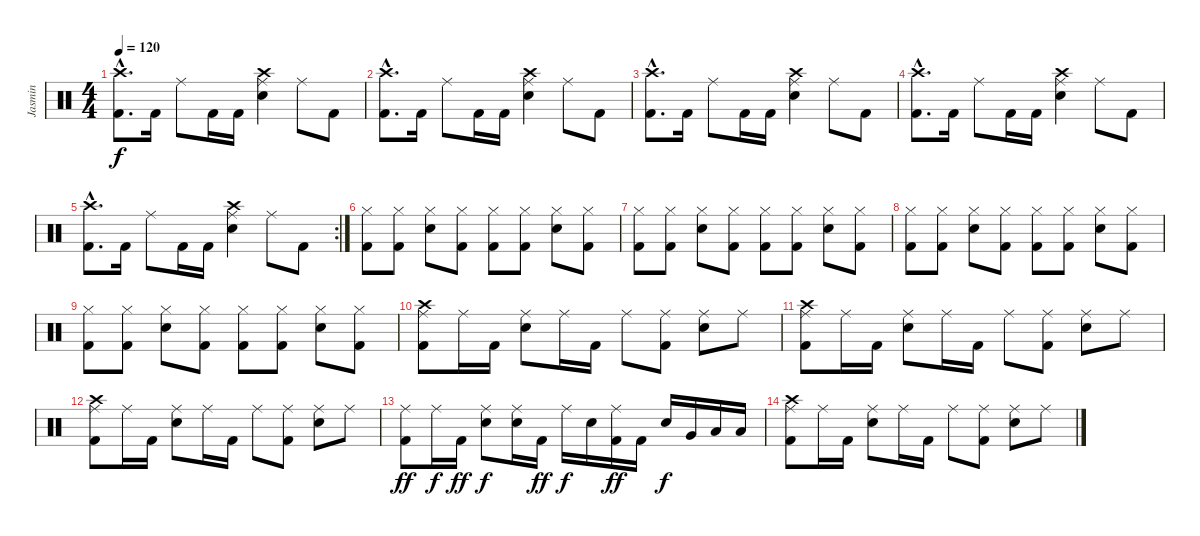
\track ("Jasmin" "Jasmin") {instrument percussion}
\staff {score}
\articulation defaults
\ts (4 4)
\tempo 120
\clef neutral
\ks c
("Crash high (hit)"{hac} "Kick (hit) 2"{hac}).8{d dy f} "Kick (hit) 2".16 "Ride (middle)".8 "Kick (hit) 2".16 "Kick (hit) 2".16 ("Crash high (hit)" "Ride (middle)" "Electric Snare (hit)").4 "Ride (middle)".8 "Kick (hit) 2".8 |
("Crash high (hit)"{hac} "Kick (hit) 2"{hac}).8{d} "Kick (hit) 2".16 "Ride (middle)".8 "Kick (hit) 2".16 "Kick (hit) 2".16 ("Crash high (hit)" "Ride (middle)" "Electric Snare (hit)").4 "Ride (middle)".8 "Kick (hit) 2".8 |
("Crash high (hit)"{hac} "Kick (hit) 2"{hac}).8{d} "Kick (hit) 2".16 "Ride (middle)".8 "Kick (hit) 2".16 "Kick (hit) 2".16 ("Crash high (hit)" "Ride (middle)" "Electric Snare (hit)").4 "Ride (middle)".8 "Kick (hit) 2".8 |
("Crash high (hit)"{hac} "Kick (hit) 2"{hac}).8{d} "Kick (hit) 2".16 "Ride (middle)".8 "Kick (hit) 2".16 "Kick (hit) 2".16 ("Crash high (hit)" "Ride (middle)" "Electric Snare (hit)").4 "Ride (middle)".8 "Kick (hit) 2".8 |
\rc 2
("Crash high (hit)"{hac} "Kick (hit) 2"{hac}).8{d} "Kick (hit) 2".16 "Ride (middle)".8 "Kick (hit) 2".16 "Kick (hit) 2".16 ("Crash high (hit)" "Ride (middle)" "Electric Snare (hit)").4 "Ride (middle)".8 "Kick (hit) 2".8 |
("Hi-Hat (closed)" "Kick (hit) 2").8 ("Hi-Hat (closed)" "Kick (hit) 2").8 ("Hi-Hat (closed)" "Electric Snare (hit)").8 ("Hi-Hat (closed)" "Kick (hit) 2").8 ("Hi-Hat (closed)" "Kick (hit) 2").8 ("Hi-Hat (closed)" "Kick (hit) 2").8 ("Hi-Hat (closed)" "Electric Snare (hit)").8 ("Hi-Hat (closed)" "Kick (hit) 2").8 |
("Hi-Hat (closed)" "Kick (hit) 2").8 ("Hi-Hat (closed)" "Kick (hit) 2").8 ("Hi-Hat (closed)" "Electric Snare (hit)").8 ("Hi-Hat (closed)" "Kick (hit) 2").8 ("Hi-Hat (closed)" "Kick (hit) 2").8 ("Hi-Hat (closed)" "Kick (hit) 2").8 ("Hi-Hat (closed)" "Electric Snare (hit)").8 ("Hi-Hat (closed)" "Kick (hit) 2").8 |
("Hi-Hat (closed)" "Kick (hit) 2").8 ("Hi-Hat (closed)" "Kick (hit) 2").8 ("Hi-Hat (closed)" "Electric Snare (hit)").8 ("Hi-Hat (closed)" "Kick (hit) 2").8 ("Hi-Hat (closed)" "Kick (hit) 2").8 ("Hi-Hat (closed)" "Kick (hit) 2").8 ("Hi-Hat (closed)" "Electric Snare (hit)").8 ("Hi-Hat (closed)" "Kick (hit) 2").8 |
("Hi-Hat (closed)" "Kick (hit) 2").8 ("Hi-Hat (closed)" "Kick (hit) 2").8 ("Hi-Hat (closed)" "Electric Snare (hit)").8 ("Hi-Hat (closed)" "Kick (hit) 2").8 ("Hi-Hat (closed)" "Kick (hit) 2").8 ("Hi-Hat (closed)" "Kick (hit) 2").8 ("Hi-Hat (closed)" "Electric Snare (hit)").8 ("Hi-Hat (closed)" "Kick (hit) 2").8 |
("Crash high (hit)" "Ride (middle)" "Kick (hit) 2").8 "Ride (middle)".16 "Kick (hit) 2".16 ("Ride (middle)" "Electric Snare (hit)").8 "Ride (middle)".16 "Kick (hit) 2".16 "Ride (middle)".8 ("Ride (middle)" "Kick (hit) 2").8 ("Ride (middle)" "Electric Snare (hit)").8 "Ride (middle)".8 |
("Crash high (hit)" "Ride (middle)" "Kick (hit) 2").8 "Ride (middle)".16 "Kick (hit) 2".16 ("Ride (middle)" "Electric Snare (hit)").8 "Ride (middle)".16 "Kick (hit) 2".16 "Ride (middle)".8 ("Ride (middle)" "Kick (hit) 2").8 ("Ride (middle)" "Electric Snare (hit)").8 "Ride (middle)".8 |
("Crash high (hit)" "Ride (middle)" "Kick (hit) 2").8 "Ride (middle)".16 "Kick (hit) 2".16 ("Ride (middle)" "Electric Snare (hit)").8 "Ride (middle)".16 "Kick (hit) 2".16 "Ride (middle)".8 ("Ride (middle)" "Kick (hit) 2").8 ("Ride (middle)" "Electric Snare (hit)").8 "Ride (middle)".8 |
("Ride (middle)" "Kick (hit) 2").8{dy ff} "Ride (middle)".16{dy f} "Kick (hit) 2".16{dy ff} ("Ride (middle)" "Electric Snare (hit)").8{dy f} ("Ride (middle)" "Electric Snare (hit)").16 "Kick (hit) 2".16{dy ff} "Ride (middle)".16{dy f} "Electric Snare (hit)".16 ("Ride (middle)" "Kick (hit) 2").16{dy ff} "Kick (hit) 2".16 "Electric Snare (hit)".16{dy f} "Very Low Tom (hit)".16 "Low Floor Tom (hit)".16 "Low Floor Tom (hit)".16 |
("Crash high (hit)" "Ride (middle)" "Kick (hit) 2").8 "Ride (middle)".16 "Kick (hit) 2".16 ("Ride (middle)" "Electric Snare (hit)").8 "Ride (middle)".16 "Kick (hit) 2".16 "Ride (middle)".8 ("Ride (middle)" "Kick (hit) 2").8 ("Ride (middle)" "Electric Snare (hit)").8 "Ride (middle)".8
